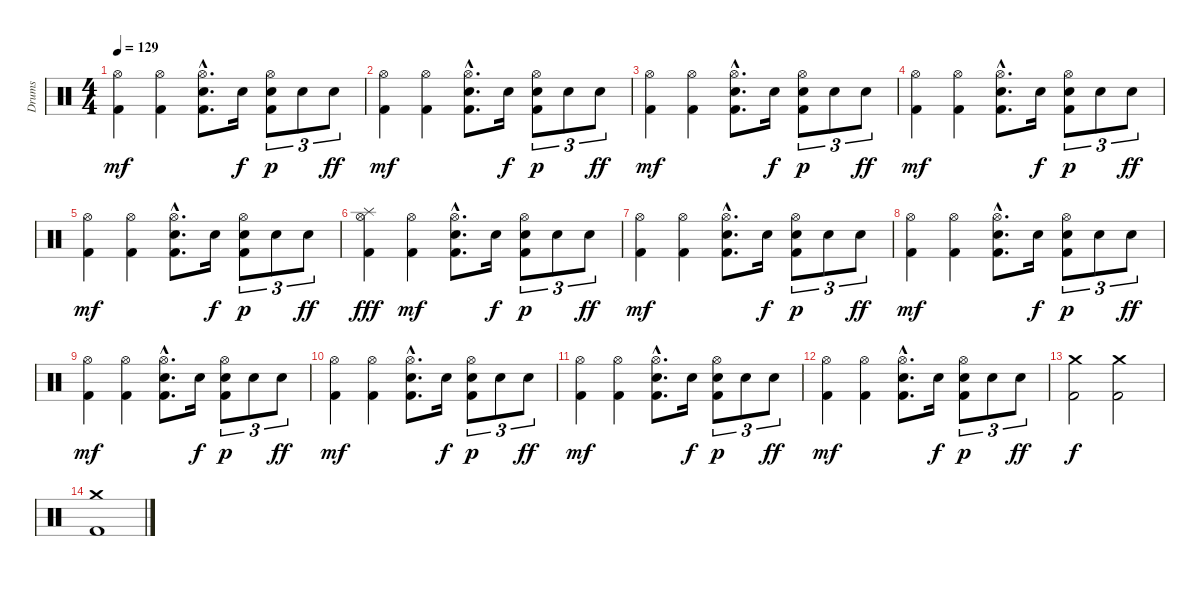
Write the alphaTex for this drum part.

\track ("Drums" "Drums") {instrument percussion}
\staff {score}
\articulation defaults
\ts (4 4)
\tempo 129
\clef neutral
\ks c
("Hi-Hat (open)" "Kick (hit) 2").4{dy mf} ("Hi-Hat (open)" "Kick (hit) 2").4 ("Hi-Hat (open)"{hac} "Electric Snare (hit)"{hac} "Kick (hit) 2"{hac}).8{d} "Electric Snare (hit)".16{dy f} ("Hi-Hat (open)" "Electric Snare (hit)" "Kick (hit) 2").8{tu (3 2) dy p} "Electric Snare (hit)".8{tu (3 2)} "Electric Snare (hit)".8{tu (3 2) dy ff} |
("Hi-Hat (open)" "Kick (hit) 2").4{dy mf} ("Hi-Hat (open)" "Kick (hit) 2").4 ("Hi-Hat (open)"{hac} "Electric Snare (hit)"{hac} "Kick (hit) 2"{hac}).8{d} "Electric Snare (hit)".16{dy f} ("Hi-Hat (open)" "Electric Snare (hit)" "Kick (hit) 2").8{tu (3 2) dy p} "Electric Snare (hit)".8{tu (3 2)} "Electric Snare (hit)".8{tu (3 2) dy ff} |
("Hi-Hat (open)" "Kick (hit) 2").4{dy mf} ("Hi-Hat (open)" "Kick (hit) 2").4 ("Hi-Hat (open)"{hac} "Electric Snare (hit)"{hac} "Kick (hit) 2"{hac}).8{d} "Electric Snare (hit)".16{dy f} ("Hi-Hat (open)" "Electric Snare (hit)" "Kick (hit) 2").8{tu (3 2) dy p} "Electric Snare (hit)".8{tu (3 2)} "Electric Snare (hit)".8{tu (3 2) dy ff} |
("Hi-Hat (open)" "Kick (hit) 2").4{dy mf} ("Hi-Hat (open)" "Kick (hit) 2").4 ("Hi-Hat (open)"{hac} "Electric Snare (hit)"{hac} "Kick (hit) 2"{hac}).8{d} "Electric Snare (hit)".16{dy f} ("Hi-Hat (open)" "Electric Snare (hit)" "Kick (hit) 2").8{tu (3 2) dy p} "Electric Snare (hit)".8{tu (3 2)} "Electric Snare (hit)".8{tu (3 2) dy ff} |
("Hi-Hat (open)" "Kick (hit) 2").4{dy mf} ("Hi-Hat (open)" "Kick (hit) 2").4 ("Hi-Hat (open)"{hac} "Electric Snare (hit)"{hac} "Kick (hit) 2"{hac}).8{d} "Electric Snare (hit)".16{dy f} ("Hi-Hat (open)" "Electric Snare (hit)" "Kick (hit) 2").8{tu (3 2) dy p} "Electric Snare (hit)".8{tu (3 2)} "Electric Snare (hit)".8{tu (3 2) dy ff} |
("Hi-Hat (open)" "Splash (hit)" "Kick (hit) 2").4{dy fff} ("Hi-Hat (open)" "Kick (hit) 2").4{dy mf} ("Hi-Hat (open)"{hac} "Electric Snare (hit)"{hac} "Kick (hit) 2"{hac}).8{d} "Electric Snare (hit)".16{dy f} ("Hi-Hat (open)" "Electric Snare (hit)" "Kick (hit) 2").8{tu (3 2) dy p} "Electric Snare (hit)".8{tu (3 2)} "Electric Snare (hit)".8{tu (3 2) dy ff} |
("Hi-Hat (open)" "Kick (hit) 2").4{dy mf} ("Hi-Hat (open)" "Kick (hit) 2").4 ("Hi-Hat (open)"{hac} "Electric Snare (hit)"{hac} "Kick (hit) 2"{hac}).8{d} "Electric Snare (hit)".16{dy f} ("Hi-Hat (open)" "Electric Snare (hit)" "Kick (hit) 2").8{tu (3 2) dy p} "Electric Snare (hit)".8{tu (3 2)} "Electric Snare (hit)".8{tu (3 2) dy ff} |
("Hi-Hat (open)" "Kick (hit) 2").4{dy mf} ("Hi-Hat (open)" "Kick (hit) 2").4 ("Hi-Hat (open)"{hac} "Electric Snare (hit)"{hac} "Kick (hit) 2"{hac}).8{d} "Electric Snare (hit)".16{dy f} ("Hi-Hat (open)" "Electric Snare (hit)" "Kick (hit) 2").8{tu (3 2) dy p} "Electric Snare (hit)".8{tu (3 2)} "Electric Snare (hit)".8{tu (3 2) dy ff} |
("Hi-Hat (open)" "Kick (hit) 2").4{dy mf} ("Hi-Hat (open)" "Kick (hit) 2").4 ("Hi-Hat (open)"{hac} "Electric Snare (hit)"{hac} "Kick (hit) 2"{hac}).8{d} "Electric Snare (hit)".16{dy f} ("Hi-Hat (open)" "Electric Snare (hit)" "Kick (hit) 2").8{tu (3 2) dy p} "Electric Snare (hit)".8{tu (3 2)} "Electric Snare (hit)".8{tu (3 2) dy ff} |
("Hi-Hat (open)" "Kick (hit) 2").4{dy mf} ("Hi-Hat (open)" "Kick (hit) 2").4 ("Hi-Hat (open)"{hac} "Electric Snare (hit)"{hac} "Kick (hit) 2"{hac}).8{d} "Electric Snare (hit)".16{dy f} ("Hi-Hat (open)" "Electric Snare (hit)" "Kick (hit) 2").8{tu (3 2) dy p} "Electric Snare (hit)".8{tu (3 2)} "Electric Snare (hit)".8{tu (3 2) dy ff} |
("Hi-Hat (open)" "Kick (hit) 2").4{dy mf} ("Hi-Hat (open)" "Kick (hit) 2").4 ("Hi-Hat (open)"{hac} "Electric Snare (hit)"{hac} "Kick (hit) 2"{hac}).8{d} "Electric Snare (hit)".16{dy f} ("Hi-Hat (open)" "Electric Snare (hit)" "Kick (hit) 2").8{tu (3 2) dy p} "Electric Snare (hit)".8{tu (3 2)} "Electric Snare (hit)".8{tu (3 2) dy ff} |
("Hi-Hat (open)" "Kick (hit) 2").4{dy mf} ("Hi-Hat (open)" "Kick (hit) 2").4 ("Hi-Hat (open)"{hac} "Electric Snare (hit)"{hac} "Kick (hit) 2"{hac}).8{d} "Electric Snare (hit)".16{dy f} ("Hi-Hat (open)" "Electric Snare (hit)" "Kick (hit) 2").8{tu (3 2) dy p} "Electric Snare (hit)".8{tu (3 2)} "Electric Snare (hit)".8{tu (3 2) dy ff} |
("Crash medium (hit)" "Kick (hit) 2").2{dy f} ("Crash medium (hit)" "Kick (hit) 2").2 |
("Crash medium (hit)" "Kick (hit) 2").1
